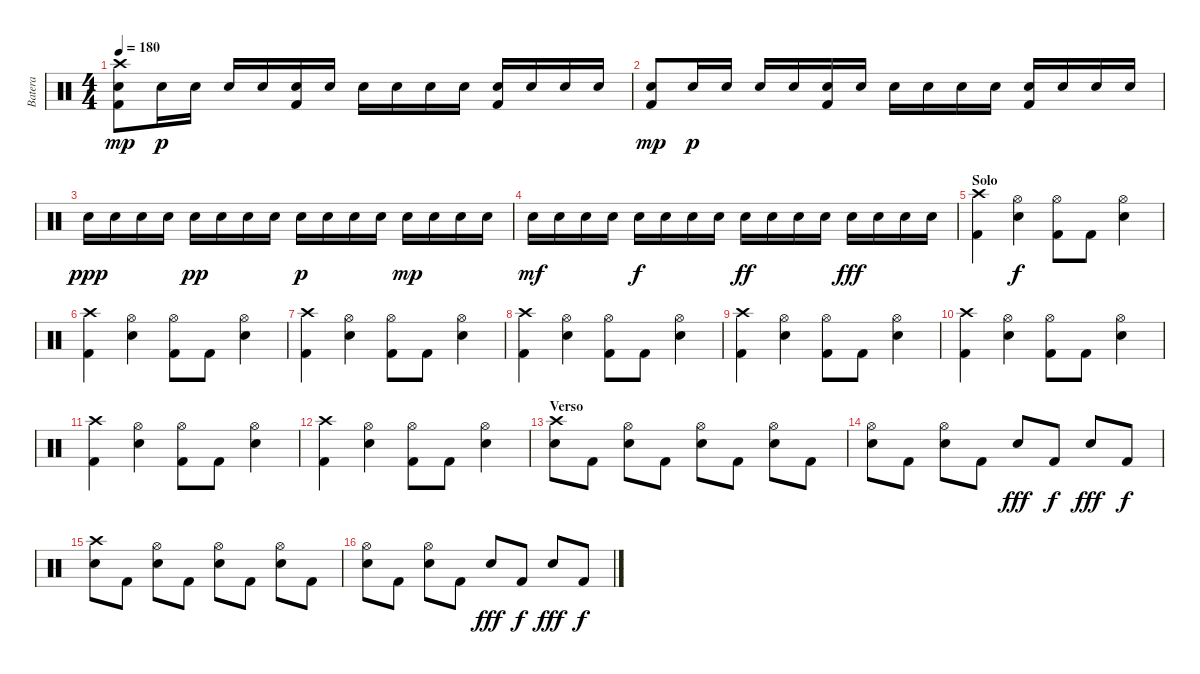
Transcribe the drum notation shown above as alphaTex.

\track ("Batera" "Batera") {instrument percussion}
\staff {score}
\articulation defaults
\ts (4 4)
\tempo 180
\clef neutral
\ks c
("Crash high (hit)" "Snare (hit) 2" "Kick (hit) 2").8{dy mp} "Snare (hit) 2".16{dy p} "Snare (hit) 2".16 "Snare (hit) 2".16 "Snare (hit) 2".16 ("Kick (hit) 2" "Snare (hit) 2").16 "Snare (hit) 2".16 "Snare (hit) 2".16 "Snare (hit) 2".16 "Snare (hit) 2".16 "Snare (hit) 2".16 ("Kick (hit) 2" "Snare (hit) 2").16 "Snare (hit) 2".16 "Snare (hit) 2".16 "Snare (hit) 2".16 |
("Snare (hit) 2" "Kick (hit) 2").8{dy mp} "Snare (hit) 2".16{dy p} "Snare (hit) 2".16 "Snare (hit) 2".16 "Snare (hit) 2".16 ("Kick (hit) 2" "Snare (hit) 2").16 "Snare (hit) 2".16 "Snare (hit) 2".16 "Snare (hit) 2".16 "Snare (hit) 2".16 "Snare (hit) 2".16 ("Kick (hit) 2" "Snare (hit) 2").16 "Snare (hit) 2".16 "Snare (hit) 2".16 "Snare (hit) 2".16 |
"Snare (hit) 2".16{dy ppp} "Snare (hit) 2".16 "Snare (hit) 2".16 "Snare (hit) 2".16 "Snare (hit) 2".16{dy pp} "Snare (hit) 2".16 "Snare (hit) 2".16 "Snare (hit) 2".16 "Snare (hit) 2".16{dy p} "Snare (hit) 2".16 "Snare (hit) 2".16 "Snare (hit) 2".16 "Snare (hit) 2".16{dy mp} "Snare (hit) 2".16 "Snare (hit) 2".16 "Snare (hit) 2".16 |
"Snare (hit) 2".16{dy mf} "Snare (hit) 2".16 "Snare (hit) 2".16 "Snare (hit) 2".16 "Snare (hit) 2".16{dy f} "Snare (hit) 2".16 "Snare (hit) 2".16 "Snare (hit) 2".16 "Snare (hit) 2".16{dy ff} "Snare (hit) 2".16 "Snare (hit) 2".16 "Snare (hit) 2".16 "Snare (hit) 2".16{dy fff} "Snare (hit) 2".16 "Snare (hit) 2".16 "Snare (hit) 2".16 |
\section ("" "Solo")
("Crash high (hit)" "Kick (hit) 2").4 ("Hi-Hat (open)" "Snare (hit) 2").4{dy f} ("Hi-Hat (open)" "Kick (hit) 2").8 "Kick (hit) 2".8 ("Hi-Hat (open)" "Snare (hit) 2").4 |
("Crash high (hit)" "Kick (hit) 2").4 ("Hi-Hat (open)" "Snare (hit) 2").4 ("Hi-Hat (open)" "Kick (hit) 2").8 "Kick (hit) 2".8 ("Hi-Hat (open)" "Snare (hit) 2").4 |
("Crash high (hit)" "Kick (hit) 2").4 ("Hi-Hat (open)" "Snare (hit) 2").4 ("Hi-Hat (open)" "Kick (hit) 2").8 "Kick (hit) 2".8 ("Hi-Hat (open)" "Snare (hit) 2").4 |
("Crash high (hit)" "Kick (hit) 2").4 ("Hi-Hat (open)" "Snare (hit) 2").4 ("Hi-Hat (open)" "Kick (hit) 2").8 "Kick (hit) 2".8 ("Hi-Hat (open)" "Snare (hit) 2").4 |
("Crash high (hit)" "Kick (hit) 2").4 ("Hi-Hat (open)" "Snare (hit) 2").4 ("Hi-Hat (open)" "Kick (hit) 2").8 "Kick (hit) 2".8 ("Hi-Hat (open)" "Snare (hit) 2").4 |
("Crash high (hit)" "Kick (hit) 2").4 ("Hi-Hat (open)" "Snare (hit) 2").4 ("Hi-Hat (open)" "Kick (hit) 2").8 "Kick (hit) 2".8 ("Hi-Hat (open)" "Snare (hit) 2").4 |
("Crash high (hit)" "Kick (hit) 2").4 ("Hi-Hat (open)" "Snare (hit) 2").4 ("Hi-Hat (open)" "Kick (hit) 2").8 "Kick (hit) 2".8 ("Hi-Hat (open)" "Snare (hit) 2").4 |
("Crash high (hit)" "Kick (hit) 2").4 ("Hi-Hat (open)" "Snare (hit) 2").4 ("Hi-Hat (open)" "Kick (hit) 2").8 "Kick (hit) 2".8 ("Hi-Hat (open)" "Snare (hit) 2").4 |
\section ("" "Verso")
("Crash high (hit)" "Snare (hit) 2").8 "Kick (hit) 2".8 ("Hi-Hat (open)" "Snare (hit) 2").8 "Kick (hit) 2".8 ("Hi-Hat (open)" "Snare (hit) 2").8 "Kick (hit) 2".8 ("Hi-Hat (open)" "Snare (hit) 2").8 "Kick (hit) 2".8 |
("Hi-Hat (open)" "Snare (hit) 2").8 "Kick (hit) 2".8 ("Hi-Hat (open)" "Snare (hit) 2").8 "Kick (hit) 2".8 "Snare (hit) 2".8{dy fff} "Kick (hit) 2".8{dy f} "Snare (hit) 2".8{dy fff} "Kick (hit) 2".8{dy f} |
("Crash high (hit)" "Snare (hit) 2").8 "Kick (hit) 2".8 ("Hi-Hat (open)" "Snare (hit) 2").8 "Kick (hit) 2".8 ("Hi-Hat (open)" "Snare (hit) 2").8 "Kick (hit) 2".8 ("Hi-Hat (open)" "Snare (hit) 2").8 "Kick (hit) 2".8 |
("Hi-Hat (open)" "Snare (hit) 2").8 "Kick (hit) 2".8 ("Hi-Hat (open)" "Snare (hit) 2").8 "Kick (hit) 2".8 "Snare (hit) 2".8{dy fff} "Kick (hit) 2".8{dy f} "Snare (hit) 2".8{dy fff} "Kick (hit) 2".8{dy f}
